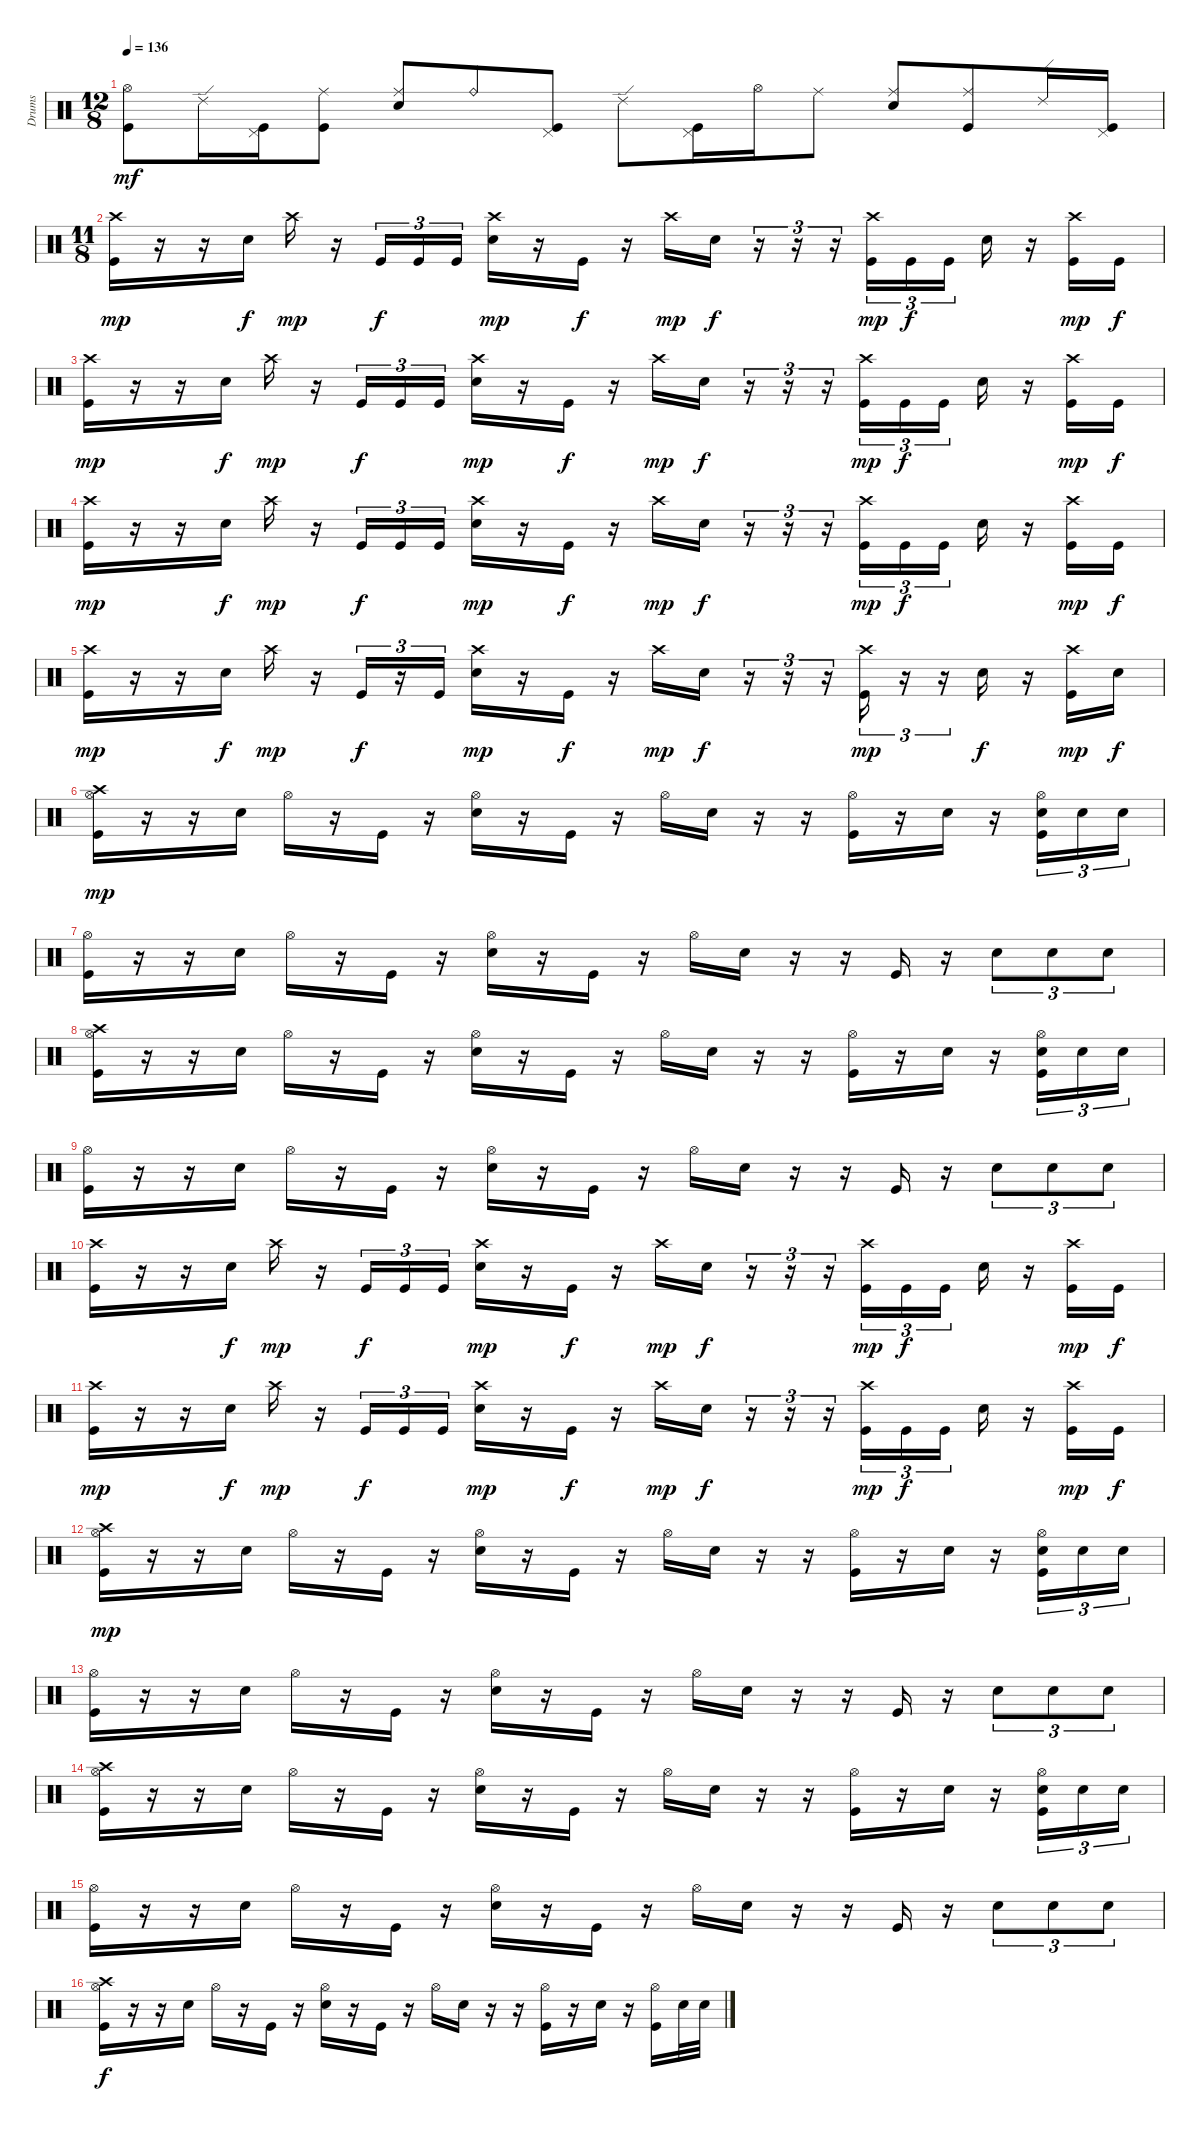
\track ("Drums" "Drums") {instrument percussion}
\staff {score}
\articulation defaults
\ts (12 8)
\tempo 136
\clef neutral
\ks c
("Hi-Hat (open)" "Kick (hit)").8{dy mf} "Ride (edge) 2".16 ("Pedal Hi-Hat (hit)" "Kick (hit)").16 ("Ride (middle)" "Kick (hit)").8 ("Ride (middle)" "Electric Snare (hit)").8 "Ride (bell)".8 ("Pedal Hi-Hat (hit)" "Kick (hit)").8 "Ride (edge) 2".8 ("Pedal Hi-Hat (hit)" "Kick (hit)").16 "Hi-Hat (open)".16 "Ride (middle)".8 ("Ride (middle)" "Electric Snare (hit)").8 ("Ride (middle)" "Kick (hit)").8 "Ride (edge) 2".16 ("Pedal Hi-Hat (hit)" "Kick (hit)").16 |
\ts (11 8)
("Crash high (hit)" "Kick (hit)").16{dy mp} r.16 r.16 "Electric Snare (hit)".16{dy f} "Crash high (hit)".16{dy mp} r.16 "Kick (hit)".16{tu (3 2) dy f} "Kick (hit)".16{tu (3 2)} "Kick (hit)".16{tu (3 2)} ("Crash high (hit)" "Electric Snare (hit)").16{dy mp} r.16 "Kick (hit)".16{dy f} r.16 "Crash high (hit)".16{dy mp} "Electric Snare (hit)".16{dy f} r.16{tu (3 2)} r.16{tu (3 2)} r.16{tu (3 2)} ("Crash high (hit)" "Kick (hit)").16{tu (3 2) dy mp} "Kick (hit)".16{tu (3 2) dy f} "Kick (hit)".16{tu (3 2)} "Electric Snare (hit)".16 r.16 ("Crash high (hit)" "Kick (hit)").16{dy mp} "Kick (hit)".16{dy f} |
("Crash high (hit)" "Kick (hit)").16{dy mp} r.16 r.16 "Electric Snare (hit)".16{dy f} "Crash high (hit)".16{dy mp} r.16 "Kick (hit)".16{tu (3 2) dy f} "Kick (hit)".16{tu (3 2)} "Kick (hit)".16{tu (3 2)} ("Crash high (hit)" "Electric Snare (hit)").16{dy mp} r.16 "Kick (hit)".16{dy f} r.16 "Crash high (hit)".16{dy mp} "Electric Snare (hit)".16{dy f} r.16{tu (3 2)} r.16{tu (3 2)} r.16{tu (3 2)} ("Crash high (hit)" "Kick (hit)").16{tu (3 2) dy mp} "Kick (hit)".16{tu (3 2) dy f} "Kick (hit)".16{tu (3 2)} "Electric Snare (hit)".16 r.16 ("Crash high (hit)" "Kick (hit)").16{dy mp} "Kick (hit)".16{dy f} |
("Crash high (hit)" "Kick (hit)").16{dy mp} r.16 r.16 "Electric Snare (hit)".16{dy f} "Crash high (hit)".16{dy mp} r.16 "Kick (hit)".16{tu (3 2) dy f} "Kick (hit)".16{tu (3 2)} "Kick (hit)".16{tu (3 2)} ("Crash high (hit)" "Electric Snare (hit)").16{dy mp} r.16 "Kick (hit)".16{dy f} r.16 "Crash high (hit)".16{dy mp} "Electric Snare (hit)".16{dy f} r.16{tu (3 2)} r.16{tu (3 2)} r.16{tu (3 2)} ("Crash high (hit)" "Kick (hit)").16{tu (3 2) dy mp} "Kick (hit)".16{tu (3 2) dy f} "Kick (hit)".16{tu (3 2)} "Electric Snare (hit)".16 r.16 ("Crash high (hit)" "Kick (hit)").16{dy mp} "Kick (hit)".16{dy f} |
("Crash high (hit)" "Kick (hit)").16{dy mp} r.16 r.16 "Electric Snare (hit)".16{dy f} "Crash high (hit)".16{dy mp} r.16 "Kick (hit)".16{tu (3 2) dy f} r.16{tu (3 2)} "Kick (hit)".16{tu (3 2)} ("Crash high (hit)" "Electric Snare (hit)").16{dy mp} r.16 "Kick (hit)".16{dy f} r.16 "Crash high (hit)".16{dy mp} "Electric Snare (hit)".16{dy f} r.16{tu (3 2)} r.16{tu (3 2)} r.16{tu (3 2)} ("Crash high (hit)" "Kick (hit)").16{tu (3 2) dy mp} r.16{tu (3 2)} r.16{tu (3 2)} "Electric Snare (hit)".16{dy f} r.16 ("Crash high (hit)" "Kick (hit)").16{dy mp} "Electric Snare (hit)".16{dy f} |
("Crash high (hit)" "Hi-Hat (open)" "Kick (hit)").16{dy mp} r.16 r.16 "Electric Snare (hit)".16 "Hi-Hat (open)".16 r.16 "Kick (hit)".16 r.16 ("Hi-Hat (open)" "Electric Snare (hit)").16 r.16 "Kick (hit)".16 r.16 "Hi-Hat (open)".16 "Electric Snare (hit)".16 r.16 r.16 ("Hi-Hat (open)" "Kick (hit)").16 r.16 "Electric Snare (hit)".16 r.16 ("Hi-Hat (open)" "Electric Snare (hit)" "Kick (hit)").16{tu (3 2)} "Electric Snare (hit)".16{tu (3 2)} "Electric Snare (hit)".16{tu (3 2)} |
("Hi-Hat (open)" "Kick (hit)").16 r.16 r.16 "Electric Snare (hit)".16 "Hi-Hat (open)".16 r.16 "Kick (hit)".16 r.16 ("Hi-Hat (open)" "Electric Snare (hit)").16 r.16 "Kick (hit)".16 r.16 "Hi-Hat (open)".16 "Electric Snare (hit)".16 r.16 r.16 "Kick (hit)".16 r.16 "Electric Snare (hit)".8{tu (3 2)} "Electric Snare (hit)".8{tu (3 2)} "Electric Snare (hit)".8{tu (3 2)} |
("Crash high (hit)" "Hi-Hat (open)" "Kick (hit)").16 r.16 r.16 "Electric Snare (hit)".16 "Hi-Hat (open)".16 r.16 "Kick (hit)".16 r.16 ("Hi-Hat (open)" "Electric Snare (hit)").16 r.16 "Kick (hit)".16 r.16 "Hi-Hat (open)".16 "Electric Snare (hit)".16 r.16 r.16 ("Hi-Hat (open)" "Kick (hit)").16 r.16 "Electric Snare (hit)".16 r.16 ("Hi-Hat (open)" "Electric Snare (hit)" "Kick (hit)").16{tu (3 2)} "Electric Snare (hit)".16{tu (3 2)} "Electric Snare (hit)".16{tu (3 2)} |
("Hi-Hat (open)" "Kick (hit)").16 r.16 r.16 "Electric Snare (hit)".16 "Hi-Hat (open)".16 r.16 "Kick (hit)".16 r.16 ("Hi-Hat (open)" "Electric Snare (hit)").16 r.16 "Kick (hit)".16 r.16 "Hi-Hat (open)".16 "Electric Snare (hit)".16 r.16 r.16 "Kick (hit)".16 r.16 "Electric Snare (hit)".8{tu (3 2)} "Electric Snare (hit)".8{tu (3 2)} "Electric Snare (hit)".8{tu (3 2)} |
("Crash high (hit)" "Kick (hit)").16 r.16 r.16 "Electric Snare (hit)".16{dy f} "Crash high (hit)".16{dy mp} r.16 "Kick (hit)".16{tu (3 2) dy f} "Kick (hit)".16{tu (3 2)} "Kick (hit)".16{tu (3 2)} ("Crash high (hit)" "Electric Snare (hit)").16{dy mp} r.16 "Kick (hit)".16{dy f} r.16 "Crash high (hit)".16{dy mp} "Electric Snare (hit)".16{dy f} r.16{tu (3 2)} r.16{tu (3 2)} r.16{tu (3 2)} ("Crash high (hit)" "Kick (hit)").16{tu (3 2) dy mp} "Kick (hit)".16{tu (3 2) dy f} "Kick (hit)".16{tu (3 2)} "Electric Snare (hit)".16 r.16 ("Crash high (hit)" "Kick (hit)").16{dy mp} "Kick (hit)".16{dy f} |
("Crash high (hit)" "Kick (hit)").16{dy mp} r.16 r.16 "Electric Snare (hit)".16{dy f} "Crash high (hit)".16{dy mp} r.16 "Kick (hit)".16{tu (3 2) dy f} "Kick (hit)".16{tu (3 2)} "Kick (hit)".16{tu (3 2)} ("Crash high (hit)" "Electric Snare (hit)").16{dy mp} r.16 "Kick (hit)".16{dy f} r.16 "Crash high (hit)".16{dy mp} "Electric Snare (hit)".16{dy f} r.16{tu (3 2)} r.16{tu (3 2)} r.16{tu (3 2)} ("Crash high (hit)" "Kick (hit)").16{tu (3 2) dy mp} "Kick (hit)".16{tu (3 2) dy f} "Kick (hit)".16{tu (3 2)} "Electric Snare (hit)".16 r.16 ("Crash high (hit)" "Kick (hit)").16{dy mp} "Kick (hit)".16{dy f} |
("Crash high (hit)" "Hi-Hat (open)" "Kick (hit)").16{dy mp} r.16 r.16 "Electric Snare (hit)".16 "Hi-Hat (open)".16 r.16 "Kick (hit)".16 r.16 ("Hi-Hat (open)" "Electric Snare (hit)").16 r.16 "Kick (hit)".16 r.16 "Hi-Hat (open)".16 "Electric Snare (hit)".16 r.16 r.16 ("Hi-Hat (open)" "Kick (hit)").16 r.16 "Electric Snare (hit)".16 r.16 ("Hi-Hat (open)" "Electric Snare (hit)" "Kick (hit)").16{tu (3 2)} "Electric Snare (hit)".16{tu (3 2)} "Electric Snare (hit)".16{tu (3 2)} |
("Hi-Hat (open)" "Kick (hit)").16 r.16 r.16 "Electric Snare (hit)".16 "Hi-Hat (open)".16 r.16 "Kick (hit)".16 r.16 ("Hi-Hat (open)" "Electric Snare (hit)").16 r.16 "Kick (hit)".16 r.16 "Hi-Hat (open)".16 "Electric Snare (hit)".16 r.16 r.16 "Kick (hit)".16 r.16 "Electric Snare (hit)".8{tu (3 2)} "Electric Snare (hit)".8{tu (3 2)} "Electric Snare (hit)".8{tu (3 2)} |
("Crash high (hit)" "Hi-Hat (open)" "Kick (hit)").16 r.16 r.16 "Electric Snare (hit)".16 "Hi-Hat (open)".16 r.16 "Kick (hit)".16 r.16 ("Hi-Hat (open)" "Electric Snare (hit)").16 r.16 "Kick (hit)".16 r.16 "Hi-Hat (open)".16 "Electric Snare (hit)".16 r.16 r.16 ("Hi-Hat (open)" "Kick (hit)").16 r.16 "Electric Snare (hit)".16 r.16 ("Hi-Hat (open)" "Electric Snare (hit)" "Kick (hit)").16{tu (3 2)} "Electric Snare (hit)".16{tu (3 2)} "Electric Snare (hit)".16{tu (3 2)} |
("Hi-Hat (open)" "Kick (hit)").16 r.16 r.16 "Electric Snare (hit)".16 "Hi-Hat (open)".16 r.16 "Kick (hit)".16 r.16 ("Hi-Hat (open)" "Electric Snare (hit)").16 r.16 "Kick (hit)".16 r.16 "Hi-Hat (open)".16 "Electric Snare (hit)".16 r.16 r.16 "Kick (hit)".16 r.16 "Electric Snare (hit)".8{tu (3 2)} "Electric Snare (hit)".8{tu (3 2)} "Electric Snare (hit)".8{tu (3 2)} |
("Crash high (hit)" "Hi-Hat (open)" "Kick (hit)").16{dy f} r.16 r.16 "Electric Snare (hit)".16 "Hi-Hat (open)".16 r.16 "Kick (hit)".16 r.16 ("Hi-Hat (open)" "Electric Snare (hit)").16 r.16 "Kick (hit)".16 r.16 "Hi-Hat (open)".16 "Electric Snare (hit)".16 r.16 r.16 ("Hi-Hat (open)" "Kick (hit)").16 r.16 "Electric Snare (hit)".16 r.16 ("Hi-Hat (open)" "Kick (hit)").16 "Electric Snare (hit)".32 "Electric Snare (hit)".32
